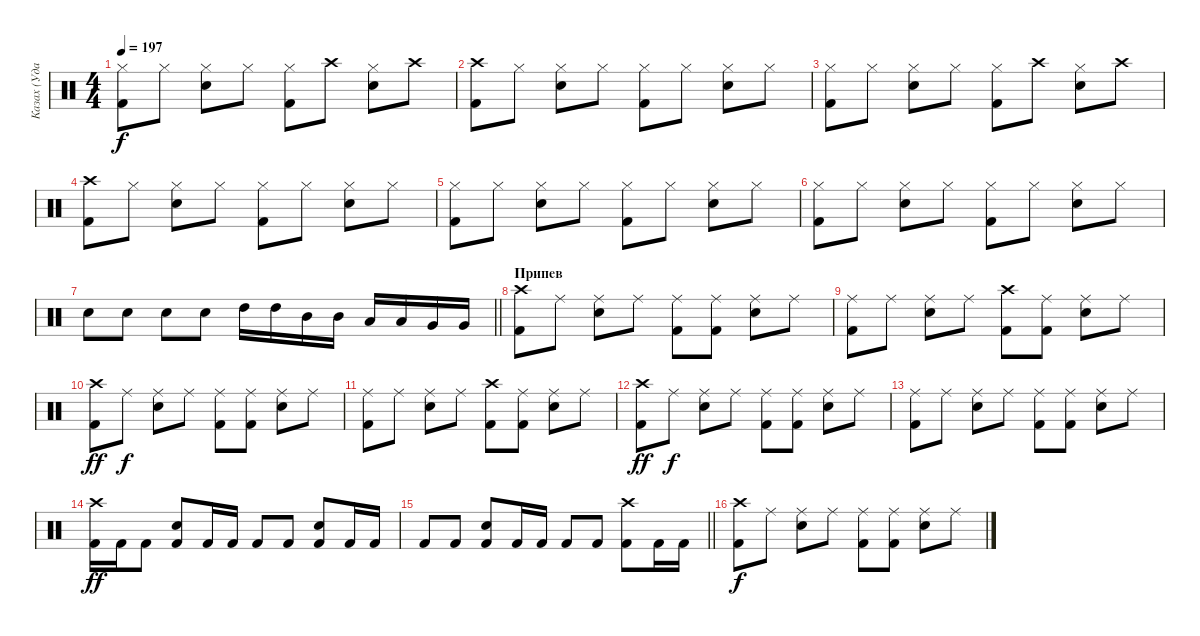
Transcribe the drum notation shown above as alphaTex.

\track ("Казах (Ударные)" "Казах (Уда") {instrument percussion}
\staff {score}
\articulation defaults
\ts (4 4)
\tempo 197
\clef neutral
\ks c
("Hi-Hat (closed)" "Kick (hit) 2").8{dy f} "Hi-Hat (closed)".8 ("Hi-Hat (closed)" "Electric Snare (hit)").8 "Hi-Hat (closed)".8 ("Hi-Hat (closed)" "Kick (hit) 2").8 "Crash high (hit)".8 ("Hi-Hat (closed)" "Electric Snare (hit)").8 "Crash high (hit)".8 |
("Crash high (hit)" "Kick (hit) 2").8 "Hi-Hat (closed)".8 ("Hi-Hat (closed)" "Electric Snare (hit)").8 "Hi-Hat (closed)".8 ("Hi-Hat (closed)" "Kick (hit) 2").8 "Hi-Hat (closed)".8 ("Hi-Hat (closed)" "Electric Snare (hit)").8 "Hi-Hat (closed)".8 |
("Hi-Hat (closed)" "Kick (hit) 2").8 "Hi-Hat (closed)".8 ("Hi-Hat (closed)" "Electric Snare (hit)").8 "Hi-Hat (closed)".8 ("Hi-Hat (closed)" "Kick (hit) 2").8 "Crash high (hit)".8 ("Hi-Hat (closed)" "Electric Snare (hit)").8 "Crash high (hit)".8 |
("Crash high (hit)" "Kick (hit) 2").8 "Hi-Hat (closed)".8 ("Hi-Hat (closed)" "Electric Snare (hit)").8 "Hi-Hat (closed)".8 ("Hi-Hat (closed)" "Kick (hit) 2").8 "Hi-Hat (closed)".8 ("Hi-Hat (closed)" "Electric Snare (hit)").8 "Hi-Hat (closed)".8 |
("Hi-Hat (closed)" "Kick (hit) 2").8 "Hi-Hat (closed)".8 ("Hi-Hat (closed)" "Electric Snare (hit)").8 "Hi-Hat (closed)".8 ("Hi-Hat (closed)" "Kick (hit) 2").8 "Hi-Hat (closed)".8 ("Hi-Hat (closed)" "Electric Snare (hit)").8 "Hi-Hat (closed)".8 |
("Hi-Hat (closed)" "Kick (hit) 2").8 "Hi-Hat (closed)".8 ("Hi-Hat (closed)" "Electric Snare (hit)").8 "Hi-Hat (closed)".8 ("Hi-Hat (closed)" "Kick (hit) 2").8 "Hi-Hat (closed)".8 ("Hi-Hat (closed)" "Electric Snare (hit)").8 "Hi-Hat (closed)".8 |
\barLineRight lightlight "Electric Snare (hit)".8 "Electric Snare (hit)".8 "Electric Snare (hit)".8 "Electric Snare (hit)".8 "High Tom (hit)".16 "High Tom (hit)".16 "Mid Tom (hit)".16 "Mid Tom (hit)".16 "Low Tom (hit)".16 "Low Tom (hit)".16 "Very Low Tom (hit)".16 "Very Low Tom (hit)".16
|
\section ("" "Припев")
("Crash high (hit)" "Kick (hit) 2").8 "Ride (middle)".8 ("Ride (middle)" "Electric Snare (hit)").8 "Ride (middle)".8 ("Ride (middle)" "Kick (hit) 2").8 ("Ride (middle)" "Kick (hit) 2").8 ("Ride (middle)" "Electric Snare (hit)").8 "Ride (middle)".8 |
("Ride (middle)" "Kick (hit) 2").8 "Ride (middle)".8 ("Ride (middle)" "Electric Snare (hit)").8 "Ride (middle)".8 ("Crash high (hit)" "Kick (hit) 2").8 ("Ride (middle)" "Kick (hit) 2").8 ("Ride (middle)" "Electric Snare (hit)").8 "Ride (middle)".8 |
("Crash high (hit)" "Kick (hit) 2").8{dy ff} "Ride (middle)".8{dy f} ("Ride (middle)" "Electric Snare (hit)").8 "Ride (middle)".8 ("Ride (middle)" "Kick (hit) 2").8 ("Ride (middle)" "Kick (hit) 2").8 ("Ride (middle)" "Electric Snare (hit)").8 "Ride (middle)".8 |
("Ride (middle)" "Kick (hit) 2").8 "Ride (middle)".8 ("Ride (middle)" "Electric Snare (hit)").8 "Ride (middle)".8 ("Crash high (hit)" "Kick (hit) 2").8 ("Ride (middle)" "Kick (hit) 2").8 ("Ride (middle)" "Electric Snare (hit)").8 "Ride (middle)".8 |
("Crash high (hit)" "Kick (hit) 2").8{dy ff} "Ride (middle)".8{dy f} ("Ride (middle)" "Electric Snare (hit)").8 "Ride (middle)".8 ("Ride (middle)" "Kick (hit) 2").8 ("Ride (middle)" "Kick (hit) 2").8 ("Ride (middle)" "Electric Snare (hit)").8 "Ride (middle)".8 |
("Ride (middle)" "Kick (hit) 2").8 "Ride (middle)".8 ("Ride (middle)" "Electric Snare (hit)").8 "Ride (middle)".8 ("Ride (middle)" "Kick (hit) 2").8 ("Ride (middle)" "Kick (hit) 2").8 ("Ride (middle)" "Electric Snare (hit)").8 "Ride (middle)".8 |
("Crash high (hit)" "Kick (hit) 2").16{dy ff} "Kick (hit) 2".16 "Kick (hit) 2".8 ("Electric Snare (hit)" "Kick (hit) 2").8 "Kick (hit) 2".16 "Kick (hit) 2".16 "Kick (hit) 2".8 "Kick (hit) 2".8 ("Electric Snare (hit)" "Kick (hit) 2").8 "Kick (hit) 2".16 "Kick (hit) 2".16 |
\barLineRight lightlight "Kick (hit) 2".8 "Kick (hit) 2".8
("Electric Snare (hit)" "Kick (hit) 2").8 "Kick (hit) 2".16 "Kick (hit) 2".16 "Kick (hit) 2".8 "Kick (hit) 2".8 ("Crash high (hit)" "Kick (hit) 2").8 "Kick (hit) 2".16 "Kick (hit) 2".16 |
("Crash high (hit)" "Kick (hit) 2").8{dy f} "Ride (middle)".8 ("Ride (middle)" "Electric Snare (hit)").8 "Ride (middle)".8 ("Ride (middle)" "Kick (hit) 2").8 ("Ride (middle)" "Kick (hit) 2").8 ("Ride (middle)" "Electric Snare (hit)").8 "Ride (middle)".8
